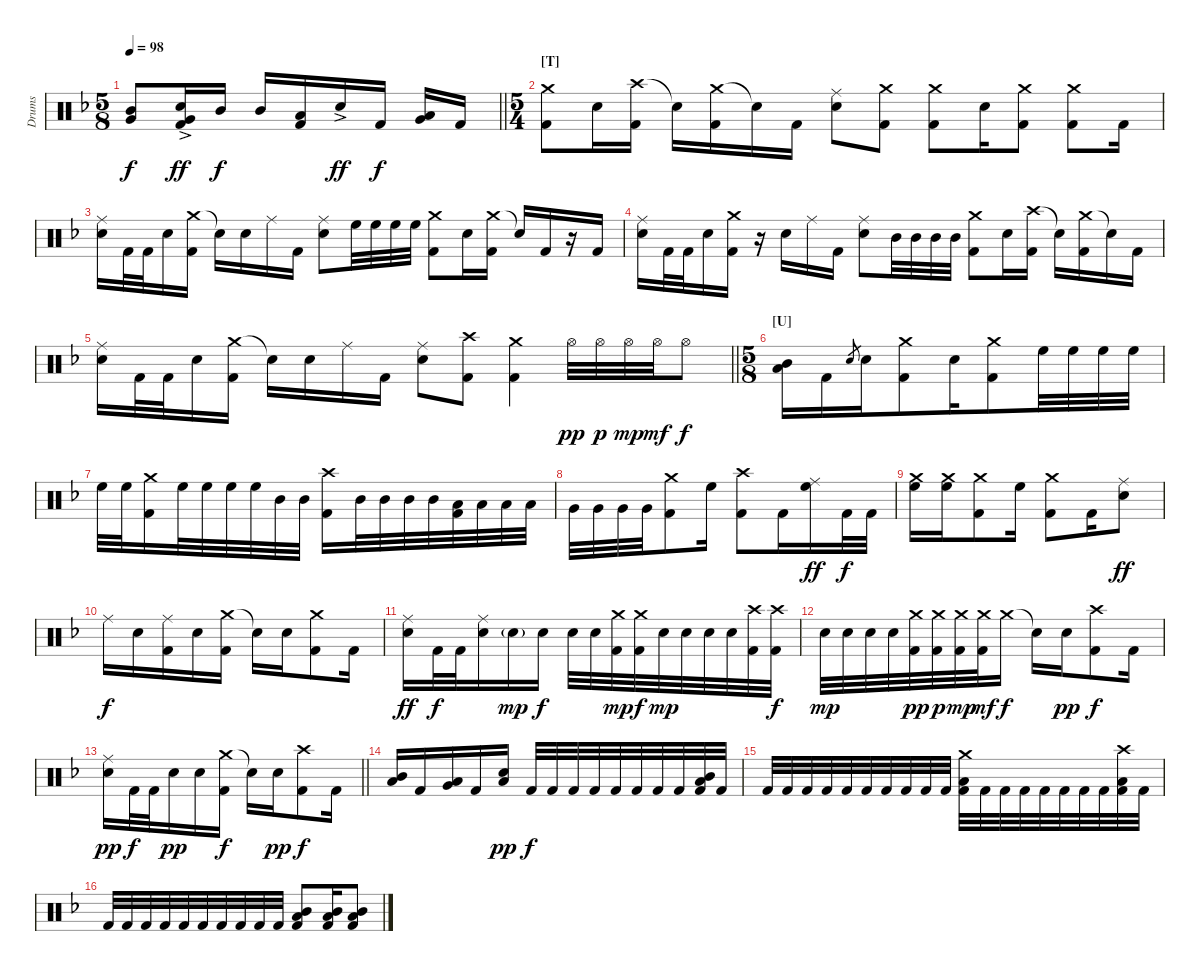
\track ("Drums" "Drums") {instrument percussion}
\staff {score}
\articulation defaults
\ts (5 8)
\tempo 98
\clef neutral
\barLineRight lightlight
\ks dminor
("Mid Tom (hit)" "Very Low Tom (hit)").8{dy f beam merge} ("Hand Clap (hit)"{ac} "Very Low Tom (hit)" "Kick (hit) 2").16{dy ff} "Mid Tom (hit)".16{dy f beam split} "Mid Tom (hit)".16 ("Low Tom (hit)" "Kick (hit) 2").16{beam merge} "Hand Clap (hit)"{ac}.16{dy ff} "Kick (hit) 2".16{dy f beam split} ("Low Tom (hit)" "Very Low Tom (hit)").16 "Kick (hit) 2".16 |
\ts (5 4)
\section ("" "[T]")
("Crash medium (hit)" "Kick (hit) 2").8 "Electric Snare (hit)".16 ("Crash high (hit)" "Kick (hit) 2").16 "Snare (hit)"{t}.16 ("Crash medium (hit)" "Kick (hit) 2").16 "Snare (hit)"{t}.16 "Kick (hit) 2".16 ("Ride (middle)" "Electric Snare (hit)").8 ("Crash medium (hit)" "Kick (hit) 2").8 ("Crash medium (hit)" "Kick (hit) 2").8 "Electric Snare (hit)".16 ("Crash medium (hit)" "Kick (hit) 2").8 ("Crash medium (hit)" "Kick (hit) 2").8 "Kick (hit) 2".16 |
("Ride (middle)" "Electric Snare (hit)").16 "Kick (hit) 2".32 "Kick (hit) 2".32 "Electric Snare (hit)".16 ("Crash medium (hit)" "Kick (hit) 2").16 "Snare (hit)"{t}.16 "Electric Snare (hit)".16 "Ride (middle)".16 "Kick (hit) 2".16 ("Ride (middle)" "Electric Snare (hit)").8 "High Floor Tom (hit)".32 "High Floor Tom (hit)".32 "High Floor Tom (hit)".32 "High Floor Tom (hit)".32 ("Crash medium (hit)" "Kick (hit) 2").8 "Electric Snare (hit)".16 ("Crash medium (hit)" "Kick (hit) 2").16 "Snare (hit)"{t}.16 "Kick (hit) 2".16 r.16 "Kick (hit) 2".16 |
("Ride (middle)" "Electric Snare (hit)").16 "Kick (hit) 2".32 "Kick (hit) 2".32 "Electric Snare (hit)".16 ("Crash medium (hit)" "Kick (hit) 2").16 r.16 "Electric Snare (hit)".16 "Ride (middle)".16 "Kick (hit) 2".16 ("Ride (middle)" "Electric Snare (hit)").8 "Mid Tom (hit)".32 "Mid Tom (hit)".32 "Mid Tom (hit)".32 "Mid Tom (hit)".32 ("Crash medium (hit)" "Kick (hit) 2").8 "Electric Snare (hit)".16 ("Crash high (hit)" "Kick (hit) 2").16 "Snare (hit)"{t}.16 ("Crash medium (hit)" "Kick (hit) 2").16 "Snare (hit)"{t}.16 "Kick (hit) 2".16 |
\barLineRight lightlight
("Ride (middle)" "Electric Snare (hit)").16 "Kick (hit) 2".32 "Kick (hit) 2".32 "Electric Snare (hit)".16 ("Crash medium (hit)" "Kick (hit) 2").16 "Snare (hit)"{t}.16 "Electric Snare (hit)".16 "Ride (middle)".16 "Kick (hit) 2".16 ("Ride (middle)" "Electric Snare (hit)").8 ("Crash high (hit)" "Kick (hit) 2").8 ("Crash medium (hit)" "Kick (hit) 2").4 "Hi-Hat (open)".32{dy pp} "Hi-Hat (open)".32{dy p} "Hi-Hat (open)".32{dy mp} "Hi-Hat (open)".32{dy mf} "Hi-Hat (open)".8{dy f} |
\ts (5 8)
\section ("" "[U]")
("Mid Tom (hit)" "Low Tom (hit)").16 "Kick (hit) 2".16 "Electric Snare (hit)".8{gr beam merge} "Electric Snare (hit)".16 ("Crash medium (hit)" "Kick (hit) 2").8 "Electric Snare (hit)".16{beam merge} ("Crash medium (hit)" "Kick (hit) 2").8{beam merge} "High Floor Tom (hit)".32 "High Floor Tom (hit)".32 "High Floor Tom (hit)".32 "High Floor Tom (hit)".32 |
"High Floor Tom (hit)".32 "High Floor Tom (hit)".32 ("Crash medium (hit)" "Kick (hit) 2").16{beam merge} "High Floor Tom (hit)".32 "High Floor Tom (hit)".32 "High Floor Tom (hit)".32 "High Floor Tom (hit)".32{beam merge} "Mid Tom (hit)".32 "Mid Tom (hit)".32{beam split} ("Crash high (hit)" "Kick (hit) 2").16{beam merge} "Mid Tom (hit)".32 "Mid Tom (hit)".32 "Mid Tom (hit)".32 "Mid Tom (hit)".32{beam merge} ("Low Tom (hit)" "Kick (hit) 2").32 "Low Tom (hit)".32 "Low Tom (hit)".32 "Low Tom (hit)".32 |
"Very Low Tom (hit)".32 "Very Low Tom (hit)".32 "Very Low Tom (hit)".32 "Very Low Tom (hit)".32{beam merge} ("Crash medium (hit)" "Kick (hit) 2").8{beam merge} "High Floor Tom (hit)".16{beam split} ("Crash high (hit)" "Kick (hit) 2").8{beam merge} "Kick (hit) 2".16{beam merge} ("Ride (middle)" "High Floor Tom (hit)").16{dy ff} "Kick (hit) 2".32{dy f} "Kick (hit) 2".32 |
("Crash medium (hit)" "High Floor Tom (hit)").16 ("Crash medium (hit)" "High Floor Tom (hit)").16{beam merge} ("Crash medium (hit)" "Kick (hit) 2").8{beam merge} "High Floor Tom (hit)".16{beam split} ("Crash medium (hit)" "Kick (hit) 2").8{beam merge} "Kick (hit) 2".16{beam merge} ("Ride (middle)" "Electric Snare (hit)").8{dy ff} |
"Ride (middle)".16{dy f} "Electric Snare (hit)".16{beam merge} ("Ride (middle)" "Kick (hit) 2").16 "Electric Snare (hit)".16{beam merge} ("Crash medium (hit)" "Kick (hit) 2").16{beam split} "Snare (hit)"{t}.16{beam merge} "Electric Snare (hit)".16 ("Crash medium (hit)" "Kick (hit) 2").8{beam merge} "Kick (hit) 2".16 |
("Ride (middle)" "Electric Snare (hit)").16{dy ff} "Kick (hit) 2".32{dy f} "Kick (hit) 2".32{beam merge} ("Ride (middle)" "Electric Snare (hit)").16 "Electric Snare (hit)"{g}.16{dy mp beam merge} "Electric Snare (hit)".16{dy f beam split} "Electric Snare (hit)".32 "Electric Snare (hit)".32{beam merge} ("Crash medium (hit)" "Kick (hit) 2").32{dy mp} ("Crash medium (hit)" "Kick (hit) 2").32{dy f} "Electric Snare (hit)".32{dy mp} "Electric Snare (hit)".32{beam merge} "Electric Snare (hit)".32 "Electric Snare (hit)".32 ("Crash high (hit)" "Kick (hit) 2").32 ("Crash high (hit)" "Kick (hit) 2").32{dy f} |
"Electric Snare (hit)".32{dy mp} "Electric Snare (hit)".32 "Electric Snare (hit)".32 "Electric Snare (hit)".32{beam merge} ("Crash medium (hit)" "Kick (hit) 2").32{dy pp} ("Crash medium (hit)" "Kick (hit) 2").32{dy p} ("Crash medium (hit)" "Kick (hit) 2").32{dy mp} ("Crash medium (hit)" "Kick (hit) 2").32{dy mf beam merge} "Crash medium (hit)".16{dy f beam split} "Snare (hit)"{t}.16{beam merge} "Electric Snare (hit)".16{dy pp} ("Crash high (hit)" "Kick (hit) 2").8{dy f beam merge} "Kick (hit) 2".16 |
\barLineRight lightlight
("Ride (middle)" "Electric Snare (hit)").16{dy pp} "Kick (hit) 2".32{dy f} "Kick (hit) 2".32{beam merge} "Electric Snare (hit)".16{dy pp} "Electric Snare (hit)".16{beam merge} ("Crash medium (hit)" "Kick (hit) 2").16{dy f beam split} "Snare (hit)"{t}.16{beam merge} "Electric Snare (hit)".16{dy pp} ("Crash high (hit)" "Kick (hit) 2").8{dy f beam merge} "Kick (hit) 2".16 |
("Mid Tom (hit)" "Low Tom (hit)").16 "Kick (hit) 2".16{beam merge} ("Low Tom (hit)" "Very Low Tom (hit)").16 "Kick (hit) 2".16{beam merge} ("Electric Snare (hit)" "Low Tom (hit)").16{dy pp beam split} "Kick (hit) 2".32{dy f} "Kick (hit) 2".32{beam merge} "Kick (hit) 2".32 "Kick (hit) 2".32 "Kick (hit) 2".32 "Kick (hit) 2".32{beam merge} "Kick (hit) 2".32 "Kick (hit) 2".32 ("Mid Tom (hit)" "Low Tom (hit)" "Kick (hit) 2").32 "Kick (hit) 2".32 |
"Kick (hit) 2".32 "Kick (hit) 2".32 "Kick (hit) 2".32 "Kick (hit) 2".32{beam merge} "Kick (hit) 2".32 "Kick (hit) 2".32 "Kick (hit) 2".32 "Kick (hit) 2".32{beam merge} "Kick (hit) 2".32 "Kick (hit) 2".32{beam split} ("Crash medium (hit)" "Low Tom (hit)" "Kick (hit) 2").32 "Kick (hit) 2".32{beam merge} "Kick (hit) 2".32 "Kick (hit) 2".32 "Kick (hit) 2".32 "Kick (hit) 2".32{beam merge} "Kick (hit) 2".32 "Kick (hit) 2".32 ("Crash high (hit)" "Low Tom (hit)" "Kick (hit) 2").32 "Kick (hit) 2".32 |
"Kick (hit) 2".32 "Kick (hit) 2".32 "Kick (hit) 2".32 "Kick (hit) 2".32{beam merge} "Kick (hit) 2".32 "Kick (hit) 2".32 "Kick (hit) 2".32 "Kick (hit) 2".32{beam merge} "Kick (hit) 2".32 "Kick (hit) 2".32{beam split} ("Mid Tom (hit)" "Low Tom (hit)" "Kick (hit) 2").8{beam merge} ("Mid Tom (hit)" "Low Tom (hit)" "Kick (hit) 2").16{beam merge} ("Mid Tom (hit)" "Low Tom (hit)" "Kick (hit) 2").8
